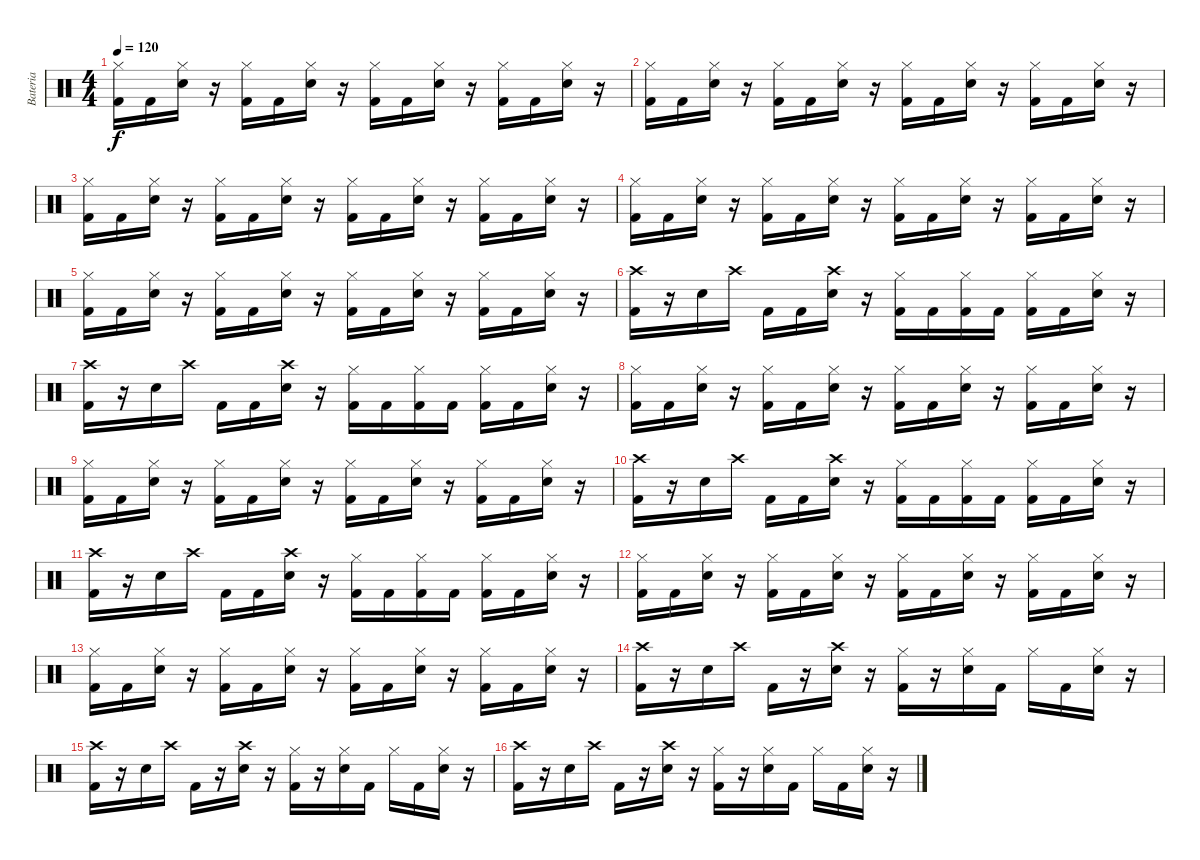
\track ("Bateria" "Bateria") {instrument percussion}
\staff {score}
\articulation defaults
\ts (4 4)
\tempo 120
\clef neutral
\ks c
("Kick (hit) 2" "Hi-Hat (closed)").16{dy f} "Kick (hit) 2".16 ("Snare (hit) 2" "Hi-Hat (closed)").16 r.16 ("Kick (hit) 2" "Hi-Hat (closed)").16 "Kick (hit) 2".16 ("Snare (hit) 2" "Hi-Hat (closed)").16 r.16 ("Kick (hit) 2" "Hi-Hat (closed)").16 "Kick (hit) 2".16 ("Snare (hit) 2" "Hi-Hat (closed)").16 r.16 ("Kick (hit) 2" "Hi-Hat (closed)").16 "Kick (hit) 2".16 ("Snare (hit) 2" "Hi-Hat (closed)").16 r.16 |
("Kick (hit) 2" "Hi-Hat (closed)").16 "Kick (hit) 2".16 ("Snare (hit) 2" "Hi-Hat (closed)").16 r.16 ("Kick (hit) 2" "Hi-Hat (closed)").16 "Kick (hit) 2".16 ("Snare (hit) 2" "Hi-Hat (closed)").16 r.16 ("Kick (hit) 2" "Hi-Hat (closed)").16 "Kick (hit) 2".16 ("Snare (hit) 2" "Hi-Hat (closed)").16 r.16 ("Kick (hit) 2" "Hi-Hat (closed)").16 "Kick (hit) 2".16 ("Snare (hit) 2" "Hi-Hat (closed)").16 r.16 |
("Kick (hit) 2" "Hi-Hat (closed)").16 "Kick (hit) 2".16 ("Snare (hit) 2" "Hi-Hat (closed)").16 r.16 ("Kick (hit) 2" "Hi-Hat (closed)").16 "Kick (hit) 2".16 ("Snare (hit) 2" "Hi-Hat (closed)").16 r.16 ("Kick (hit) 2" "Hi-Hat (closed)").16 "Kick (hit) 2".16 ("Snare (hit) 2" "Hi-Hat (closed)").16 r.16 ("Kick (hit) 2" "Hi-Hat (closed)").16 "Kick (hit) 2".16 ("Snare (hit) 2" "Hi-Hat (closed)").16 r.16 |
("Kick (hit) 2" "Hi-Hat (closed)").16 "Kick (hit) 2".16 ("Snare (hit) 2" "Hi-Hat (closed)").16 r.16 ("Kick (hit) 2" "Hi-Hat (closed)").16 "Kick (hit) 2".16 ("Snare (hit) 2" "Hi-Hat (closed)").16 r.16 ("Kick (hit) 2" "Hi-Hat (closed)").16 "Kick (hit) 2".16 ("Snare (hit) 2" "Hi-Hat (closed)").16 r.16 ("Kick (hit) 2" "Hi-Hat (closed)").16 "Kick (hit) 2".16 ("Snare (hit) 2" "Hi-Hat (closed)").16 r.16 |
("Kick (hit) 2" "Hi-Hat (closed)").16 "Kick (hit) 2".16 ("Snare (hit) 2" "Hi-Hat (closed)").16 r.16 ("Kick (hit) 2" "Hi-Hat (closed)").16 "Kick (hit) 2".16 ("Snare (hit) 2" "Hi-Hat (closed)").16 r.16 ("Kick (hit) 2" "Hi-Hat (closed)").16 "Kick (hit) 2".16 ("Snare (hit) 2" "Hi-Hat (closed)").16 r.16 ("Kick (hit) 2" "Hi-Hat (closed)").16 "Kick (hit) 2".16 ("Snare (hit) 2" "Hi-Hat (closed)").16 r.16 |
("Kick (hit) 2" "Crash high (hit)").16 r.16 "Snare (hit) 2".16 "Crash high (hit)".16 "Kick (hit) 2".16 "Kick (hit) 2".16 ("Snare (hit) 2" "Crash high (hit)").16 r.16 ("Kick (hit) 2" "Hi-Hat (closed)").16 "Kick (hit) 2".16 ("Kick (hit) 2" "Hi-Hat (closed)").16 "Kick (hit) 2".16 ("Kick (hit) 2" "Hi-Hat (closed)").16 "Kick (hit) 2".16 ("Snare (hit) 2" "Hi-Hat (closed)").16 r.16 |
("Kick (hit) 2" "Crash high (hit)").16 r.16 "Snare (hit) 2".16 "Crash high (hit)".16 "Kick (hit) 2".16 "Kick (hit) 2".16 ("Snare (hit) 2" "Crash high (hit)").16 r.16 ("Kick (hit) 2" "Hi-Hat (closed)").16 "Kick (hit) 2".16 ("Kick (hit) 2" "Hi-Hat (closed)").16 "Kick (hit) 2".16 ("Kick (hit) 2" "Hi-Hat (closed)").16 "Kick (hit) 2".16 ("Snare (hit) 2" "Hi-Hat (closed)").16 r.16 |
("Kick (hit) 2" "Hi-Hat (closed)").16 "Kick (hit) 2".16 ("Snare (hit) 2" "Hi-Hat (closed)").16 r.16 ("Kick (hit) 2" "Hi-Hat (closed)").16 "Kick (hit) 2".16 ("Snare (hit) 2" "Hi-Hat (closed)").16 r.16 ("Kick (hit) 2" "Hi-Hat (closed)").16 "Kick (hit) 2".16 ("Snare (hit) 2" "Hi-Hat (closed)").16 r.16 ("Kick (hit) 2" "Hi-Hat (closed)").16 "Kick (hit) 2".16 ("Snare (hit) 2" "Hi-Hat (closed)").16 r.16 |
("Kick (hit) 2" "Hi-Hat (closed)").16 "Kick (hit) 2".16 ("Snare (hit) 2" "Hi-Hat (closed)").16 r.16 ("Kick (hit) 2" "Hi-Hat (closed)").16 "Kick (hit) 2".16 ("Snare (hit) 2" "Hi-Hat (closed)").16 r.16 ("Kick (hit) 2" "Hi-Hat (closed)").16 "Kick (hit) 2".16 ("Snare (hit) 2" "Hi-Hat (closed)").16 r.16 ("Kick (hit) 2" "Hi-Hat (closed)").16 "Kick (hit) 2".16 ("Snare (hit) 2" "Hi-Hat (closed)").16 r.16 |
("Kick (hit) 2" "Crash high (hit)").16 r.16 "Snare (hit) 2".16 "Crash high (hit)".16 "Kick (hit) 2".16 "Kick (hit) 2".16 ("Snare (hit) 2" "Crash high (hit)").16 r.16 ("Kick (hit) 2" "Hi-Hat (closed)").16 "Kick (hit) 2".16 ("Kick (hit) 2" "Hi-Hat (closed)").16 "Kick (hit) 2".16 ("Kick (hit) 2" "Hi-Hat (closed)").16 "Kick (hit) 2".16 ("Snare (hit) 2" "Hi-Hat (closed)").16 r.16 |
("Kick (hit) 2" "Crash high (hit)").16 r.16 "Snare (hit) 2".16 "Crash high (hit)".16 "Kick (hit) 2".16 "Kick (hit) 2".16 ("Snare (hit) 2" "Crash high (hit)").16 r.16 ("Kick (hit) 2" "Hi-Hat (closed)").16 "Kick (hit) 2".16 ("Kick (hit) 2" "Hi-Hat (closed)").16 "Kick (hit) 2".16 ("Kick (hit) 2" "Hi-Hat (closed)").16 "Kick (hit) 2".16 ("Snare (hit) 2" "Hi-Hat (closed)").16 r.16 |
("Kick (hit) 2" "Hi-Hat (closed)").16 "Kick (hit) 2".16 ("Snare (hit) 2" "Hi-Hat (closed)").16 r.16 ("Kick (hit) 2" "Hi-Hat (closed)").16 "Kick (hit) 2".16 ("Snare (hit) 2" "Hi-Hat (closed)").16 r.16 ("Kick (hit) 2" "Hi-Hat (closed)").16 "Kick (hit) 2".16 ("Snare (hit) 2" "Hi-Hat (closed)").16 r.16 ("Kick (hit) 2" "Hi-Hat (closed)").16 "Kick (hit) 2".16 ("Snare (hit) 2" "Hi-Hat (closed)").16 r.16 |
("Kick (hit) 2" "Hi-Hat (closed)").16 "Kick (hit) 2".16 ("Snare (hit) 2" "Hi-Hat (closed)").16 r.16 ("Kick (hit) 2" "Hi-Hat (closed)").16 "Kick (hit) 2".16 ("Snare (hit) 2" "Hi-Hat (closed)").16 r.16 ("Kick (hit) 2" "Hi-Hat (closed)").16 "Kick (hit) 2".16 ("Snare (hit) 2" "Hi-Hat (closed)").16 r.16 ("Kick (hit) 2" "Hi-Hat (closed)").16 "Kick (hit) 2".16 ("Snare (hit) 2" "Hi-Hat (closed)").16 r.16 |
("Kick (hit) 2" "Crash high (hit)").16 r.16 "Snare (hit) 2".16 "Crash high (hit)".16 "Kick (hit) 2".16 r.16 ("Snare (hit) 2" "Crash high (hit)").16 r.16 ("Kick (hit) 2" "Hi-Hat (closed)").16 r.16 ("Snare (hit) 2" "Hi-Hat (closed)").16 "Kick (hit) 2".16 "Hi-Hat (closed)".16 "Kick (hit) 2".16 ("Snare (hit) 2" "Hi-Hat (closed)").16 r.16 |
("Kick (hit) 2" "Crash high (hit)").16 r.16 "Snare (hit) 2".16 "Crash high (hit)".16 "Kick (hit) 2".16 r.16 ("Snare (hit) 2" "Crash high (hit)").16 r.16 ("Kick (hit) 2" "Hi-Hat (closed)").16 r.16 ("Snare (hit) 2" "Hi-Hat (closed)").16 "Kick (hit) 2".16 "Hi-Hat (closed)".16 "Kick (hit) 2".16 ("Snare (hit) 2" "Hi-Hat (closed)").16 r.16 |
("Kick (hit) 2" "Crash high (hit)").16 r.16 "Snare (hit) 2".16 "Crash high (hit)".16 "Kick (hit) 2".16 r.16 ("Snare (hit) 2" "Crash high (hit)").16 r.16 ("Kick (hit) 2" "Hi-Hat (closed)").16 r.16 ("Snare (hit) 2" "Hi-Hat (closed)").16 "Kick (hit) 2".16 "Hi-Hat (closed)".16 "Kick (hit) 2".16 ("Snare (hit) 2" "Hi-Hat (closed)").16 r.16
